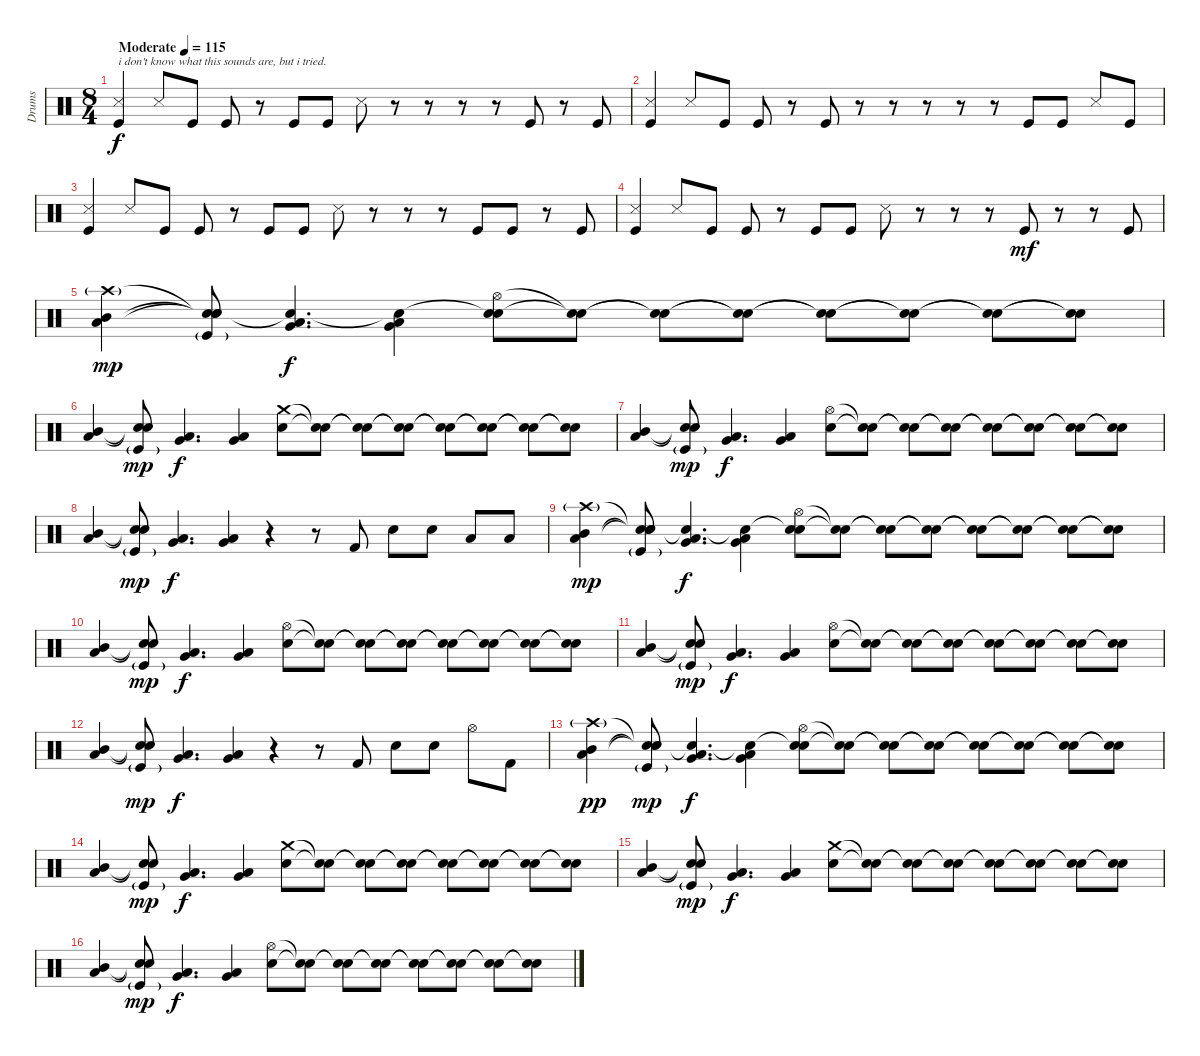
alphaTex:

\track ("Drums" "Drums") {instrument percussion}
\staff {score}
\articulation defaults
\ts (8 4)
\tempo (115 "Moderate")
\clef neutral
\ks c
("Metronome (hit)" "Kick (hit)").4{txt "i don't know what this sounds are, but i tried." dy f volume 5} "Metronome (hit)".8 "Kick (hit)".8 "Kick (hit)".8 r.8 "Kick (hit)".8 "Kick (hit)".8 "Metronome (hit)".8 r.8 r.8 r.8 r.8 "Kick (hit)".8 r.8 "Kick (hit)".8 |
("Metronome (hit)" "Kick (hit)").4{volume 4} "Metronome (hit)".8 "Kick (hit)".8 "Kick (hit)".8 r.8 "Kick (hit)".8 r.8 r.8 r.8 r.8 r.8 "Kick (hit)".8 "Kick (hit)".8 "Metronome (hit)".8 "Kick (hit)".8 |
("Metronome (hit)" "Kick (hit)").4{volume 6} "Metronome (hit)".8 "Kick (hit)".8 "Kick (hit)".8 r.8 "Kick (hit)".8 "Kick (hit)".8 "Metronome (hit)".8 r.8 r.8 r.8 "Kick (hit)".8 "Kick (hit)".8 r.8 "Kick (hit)".8 |
("Metronome (hit)" "Kick (hit)").4{volume 8} "Metronome (hit)".8 "Kick (hit)".8 "Kick (hit)".8 r.8 "Kick (hit)".8 "Kick (hit)".8 "Metronome (hit)".8 r.8 r.8 r.8 "Kick (hit)".8{dy mf} r.8 r.8 "Kick (hit)".8 |
("Crash high (hit)"{g} "Low Tom (hit)" "Mid Tom (hit)").4{dy mp volume 13} ("Snare (hit)"{t} "Snare (hit)"{t} "Snare (hit)"{t} "Kick (hit)"{g}).8 ("Snare (hit)"{t} "Very Low Tom (hit)" "Low Tom (hit)").4{d dy f} ("Snare (hit)"{t} "Low Floor Tom (hit)" "Very Low Tom (hit)").4 ("Snare (hit)"{t} "Hi-Hat (open)" "Electric Snare (hit)").8 ("Snare (hit)"{t} "Snare (hit)"{t}).8 ("Snare (hit)"{t} "Snare (hit)"{t}).8 ("Snare (hit)"{t} "Snare (hit)"{t}).8 ("Snare (hit)"{t} "Snare (hit)"{t}).8 ("Snare (hit)"{t} "Snare (hit)"{t}).8 ("Snare (hit)"{t} "Snare (hit)"{t}).8 ("Snare (hit)"{t} "Snare (hit)"{t}).8 |
("Low Tom (hit)" "Mid Tom (hit)").4 ("Snare (hit)"{t} "Snare (hit)"{t} "Kick (hit)"{g}).8{dy mp} ("Very Low Tom (hit)" "Low Tom (hit)").4{d dy f} ("Low Floor Tom (hit)" "Very Low Tom (hit)").4 ("Crash medium (hit)" "Electric Snare (hit)").8 ("Snare (hit)"{t} "Snare (hit)"{t}).8 ("Snare (hit)"{t} "Snare (hit)"{t}).8 ("Snare (hit)"{t} "Snare (hit)"{t}).8 ("Snare (hit)"{t} "Snare (hit)"{t}).8 ("Snare (hit)"{t} "Snare (hit)"{t}).8 ("Snare (hit)"{t} "Snare (hit)"{t}).8 ("Snare (hit)"{t} "Snare (hit)"{t}).8 |
("Low Tom (hit)" "Mid Tom (hit)").4 ("Snare (hit)"{t} "Snare (hit)"{t} "Kick (hit)"{g}).8{dy mp} ("Very Low Tom (hit)" "Low Tom (hit)").4{d dy f} ("Low Floor Tom (hit)" "Very Low Tom (hit)").4 ("Hi-Hat (open)" "Electric Snare (hit)").8 ("Snare (hit)"{t} "Snare (hit)"{t}).8 ("Snare (hit)"{t} "Snare (hit)"{t}).8 ("Snare (hit)"{t} "Snare (hit)"{t}).8 ("Snare (hit)"{t} "Snare (hit)"{t}).8 ("Snare (hit)"{t} "Snare (hit)"{t}).8 ("Snare (hit)"{t} "Snare (hit)"{t}).8 ("Snare (hit)"{t} "Snare (hit)"{t}).8 |
("Low Tom (hit)" "Mid Tom (hit)").4 ("Snare (hit)"{t} "Snare (hit)"{t} "Kick (hit)"{g}).8{dy mp} ("Very Low Tom (hit)" "Low Tom (hit)").4{d dy f} ("Low Floor Tom (hit)" "Very Low Tom (hit)").4 r.4 r.8 "Kick (hit) 2".8 "Electric Snare (hit)".8 "Electric Snare (hit)".8 "Low Tom (hit)".8 "Low Tom (hit)".8 |
("Crash high (hit)"{g} "Low Tom (hit)" "Mid Tom (hit)").4{dy mp} ("Snare (hit)"{t} "Snare (hit)"{t} "Snare (hit)"{t} "Kick (hit)"{g}).8 ("Snare (hit)"{t} "Very Low Tom (hit)" "Low Tom (hit)").4{d dy f} ("Snare (hit)"{t} "Low Floor Tom (hit)" "Very Low Tom (hit)").4 ("Snare (hit)"{t} "Hi-Hat (open)" "Electric Snare (hit)").8 ("Snare (hit)"{t} "Snare (hit)"{t}).8 ("Snare (hit)"{t} "Snare (hit)"{t}).8 ("Snare (hit)"{t} "Snare (hit)"{t}).8 ("Snare (hit)"{t} "Snare (hit)"{t}).8 ("Snare (hit)"{t} "Snare (hit)"{t}).8 ("Snare (hit)"{t} "Snare (hit)"{t}).8 ("Snare (hit)"{t} "Snare (hit)"{t}).8 |
("Low Tom (hit)" "Mid Tom (hit)").4 ("Snare (hit)"{t} "Snare (hit)"{t} "Kick (hit)"{g}).8{dy mp} ("Very Low Tom (hit)" "Low Tom (hit)").4{d dy f} ("Low Floor Tom (hit)" "Very Low Tom (hit)").4 ("Hi-Hat (open)" "Electric Snare (hit)").8 ("Snare (hit)"{t} "Snare (hit)"{t}).8 ("Snare (hit)"{t} "Snare (hit)"{t}).8 ("Snare (hit)"{t} "Snare (hit)"{t}).8 ("Snare (hit)"{t} "Snare (hit)"{t}).8 ("Snare (hit)"{t} "Snare (hit)"{t}).8 ("Snare (hit)"{t} "Snare (hit)"{t}).8 ("Snare (hit)"{t} "Snare (hit)"{t}).8 |
("Low Tom (hit)" "Mid Tom (hit)").4 ("Snare (hit)"{t} "Snare (hit)"{t} "Kick (hit)"{g}).8{dy mp} ("Very Low Tom (hit)" "Low Tom (hit)").4{d dy f} ("Low Floor Tom (hit)" "Very Low Tom (hit)").4 ("Hi-Hat (open)" "Electric Snare (hit)").8 ("Snare (hit)"{t} "Snare (hit)"{t}).8 ("Snare (hit)"{t} "Snare (hit)"{t}).8 ("Snare (hit)"{t} "Snare (hit)"{t}).8 ("Snare (hit)"{t} "Snare (hit)"{t}).8 ("Snare (hit)"{t} "Snare (hit)"{t}).8 ("Snare (hit)"{t} "Snare (hit)"{t}).8 ("Snare (hit)"{t} "Snare (hit)"{t}).8 |
("Low Tom (hit)" "Mid Tom (hit)").4 ("Snare (hit)"{t} "Snare (hit)"{t} "Kick (hit)"{g}).8{dy mp} ("Very Low Tom (hit)" "Low Tom (hit)").4{d dy f} ("Low Floor Tom (hit)" "Very Low Tom (hit)").4 r.4 r.8 "Kick (hit) 2".8 "Electric Snare (hit)".8 "Electric Snare (hit)".8 "Hi-Hat (open)".8 "Kick (hit) 2".8 |
("Crash high (hit)"{g} "Low Tom (hit)" "Mid Tom (hit)").4{dy pp} ("Snare (hit)"{t} "Snare (hit)"{t} "Snare (hit)"{t} "Kick (hit)"{g}).8{dy mp} ("Snare (hit)"{t} "Very Low Tom (hit)" "Low Tom (hit)").4{d dy f} ("Snare (hit)"{t} "Low Floor Tom (hit)" "Very Low Tom (hit)").4 ("Snare (hit)"{t} "Hi-Hat (open)" "Electric Snare (hit)").8 ("Snare (hit)"{t} "Snare (hit)"{t}).8 ("Snare (hit)"{t} "Snare (hit)"{t}).8 ("Snare (hit)"{t} "Snare (hit)"{t}).8 ("Snare (hit)"{t} "Snare (hit)"{t}).8 ("Snare (hit)"{t} "Snare (hit)"{t}).8 ("Snare (hit)"{t} "Snare (hit)"{t}).8 ("Snare (hit)"{t} "Snare (hit)"{t}).8 |
("Low Tom (hit)" "Mid Tom (hit)").4 ("Snare (hit)"{t} "Snare (hit)"{t} "Kick (hit)"{g}).8{dy mp} ("Very Low Tom (hit)" "Low Tom (hit)").4{d dy f} ("Low Floor Tom (hit)" "Very Low Tom (hit)").4 ("Crash medium (hit)" "Electric Snare (hit)").8 ("Snare (hit)"{t} "Snare (hit)"{t}).8 ("Snare (hit)"{t} "Snare (hit)"{t}).8 ("Snare (hit)"{t} "Snare (hit)"{t}).8 ("Snare (hit)"{t} "Snare (hit)"{t}).8 ("Snare (hit)"{t} "Snare (hit)"{t}).8 ("Snare (hit)"{t} "Snare (hit)"{t}).8 ("Snare (hit)"{t} "Snare (hit)"{t}).8 |
("Low Tom (hit)" "Mid Tom (hit)").4 ("Snare (hit)"{t} "Snare (hit)"{t} "Kick (hit)"{g}).8{dy mp} ("Very Low Tom (hit)" "Low Tom (hit)").4{d dy f} ("Low Floor Tom (hit)" "Very Low Tom (hit)").4 ("Crash medium (hit)" "Electric Snare (hit)").8 ("Snare (hit)"{t} "Snare (hit)"{t}).8 ("Snare (hit)"{t} "Snare (hit)"{t}).8 ("Snare (hit)"{t} "Snare (hit)"{t}).8 ("Snare (hit)"{t} "Snare (hit)"{t}).8 ("Snare (hit)"{t} "Snare (hit)"{t}).8 ("Snare (hit)"{t} "Snare (hit)"{t}).8 ("Snare (hit)"{t} "Snare (hit)"{t}).8 |
("Low Tom (hit)" "Mid Tom (hit)").4 ("Snare (hit)"{t} "Snare (hit)"{t} "Kick (hit)"{g}).8{dy mp} ("Very Low Tom (hit)" "Low Tom (hit)").4{d dy f} ("Low Floor Tom (hit)" "Very Low Tom (hit)").4 ("Hi-Hat (open)" "Electric Snare (hit)").8 ("Snare (hit)"{t} "Snare (hit)"{t}).8 ("Snare (hit)"{t} "Snare (hit)"{t}).8 ("Snare (hit)"{t} "Snare (hit)"{t}).8 ("Snare (hit)"{t} "Snare (hit)"{t}).8 ("Snare (hit)"{t} "Snare (hit)"{t}).8 ("Snare (hit)"{t} "Snare (hit)"{t}).8 ("Snare (hit)"{t} "Snare (hit)"{t}).8
